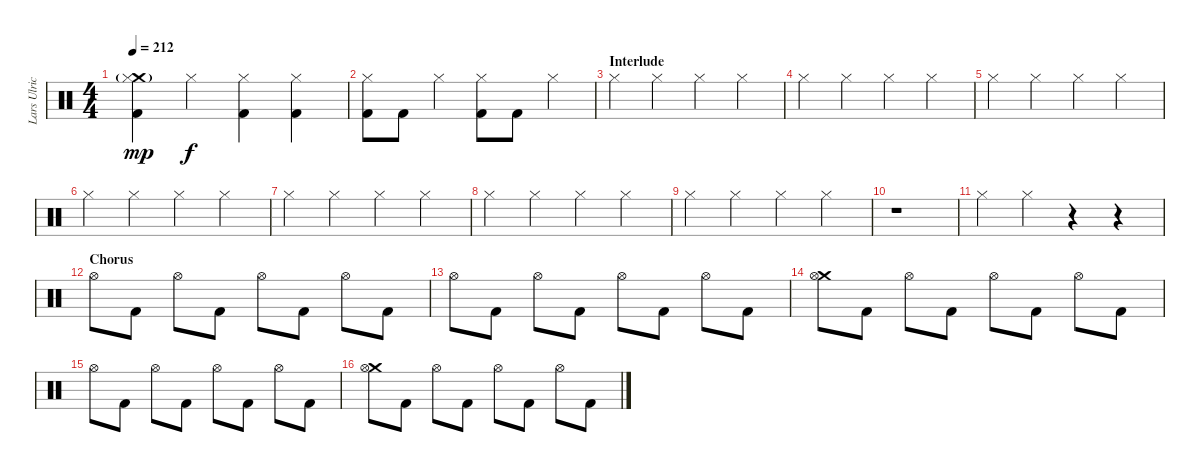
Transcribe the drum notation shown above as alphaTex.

\track ("Lars Ulrich" "Lars Ulric") {instrument percussion}
\staff {score}
\articulation defaults
\ts (4 4)
\tempo 212
\clef neutral
\ks c
("Crash medium (hit)"{g} "Hi-Hat (closed)" "Kick (hit) 2").4{dy mp} "Hi-Hat (closed)".4{dy f} ("Hi-Hat (closed)" "Kick (hit) 2").4 ("Hi-Hat (closed)" "Kick (hit) 2").4 |
("Hi-Hat (closed)" "Kick (hit) 2").8 "Kick (hit) 2".8 "Hi-Hat (closed)".4 ("Hi-Hat (closed)" "Kick (hit) 2").8 "Kick (hit) 2".8 "Hi-Hat (closed)".4 |
\section ("" "Interlude")
"Hi-Hat (closed)".4 "Hi-Hat (closed)".4 "Hi-Hat (closed)".4 "Hi-Hat (closed)".4 |
"Hi-Hat (closed)".4 "Hi-Hat (closed)".4 "Hi-Hat (closed)".4 "Hi-Hat (closed)".4 |
"Hi-Hat (closed)".4 "Hi-Hat (closed)".4 "Hi-Hat (closed)".4 "Hi-Hat (closed)".4 |
"Hi-Hat (closed)".4 "Hi-Hat (closed)".4 "Hi-Hat (closed)".4 "Hi-Hat (closed)".4 |
"Hi-Hat (closed)".4 "Hi-Hat (closed)".4 "Hi-Hat (closed)".4 "Hi-Hat (closed)".4 |
"Hi-Hat (closed)".4 "Hi-Hat (closed)".4 "Hi-Hat (closed)".4 "Hi-Hat (closed)".4 |
"Hi-Hat (closed)".4 "Hi-Hat (closed)".4 "Hi-Hat (closed)".4 "Hi-Hat (closed)".4 |
r.1 |
"Hi-Hat (closed)".4 "Hi-Hat (closed)".4 r.4 r.4 |
\section ("" "Chorus")
"Hi-Hat (open)".8 "Kick (hit) 2".8 "Hi-Hat (open)".8 "Kick (hit) 2".8 "Hi-Hat (open)".8 "Kick (hit) 2".8 "Hi-Hat (open)".8 "Kick (hit) 2".8 |
"Hi-Hat (open)".8 "Kick (hit) 2".8 "Hi-Hat (open)".8 "Kick (hit) 2".8 "Hi-Hat (open)".8 "Kick (hit) 2".8 "Hi-Hat (open)".8 "Kick (hit) 2".8 |
("Crash medium (hit)" "Hi-Hat (open)").8 "Kick (hit) 2".8 "Hi-Hat (open)".8 "Kick (hit) 2".8 "Hi-Hat (open)".8 "Kick (hit) 2".8 "Hi-Hat (open)".8 "Kick (hit) 2".8 |
"Hi-Hat (open)".8 "Kick (hit) 2".8 "Hi-Hat (open)".8 "Kick (hit) 2".8 "Hi-Hat (open)".8 "Kick (hit) 2".8 "Hi-Hat (open)".8 "Kick (hit) 2".8 |
("Crash medium (hit)" "Hi-Hat (open)").8 "Kick (hit) 2".8 "Hi-Hat (open)".8 "Kick (hit) 2".8 "Hi-Hat (open)".8 "Kick (hit) 2".8 "Hi-Hat (open)".8 "Kick (hit) 2".8
